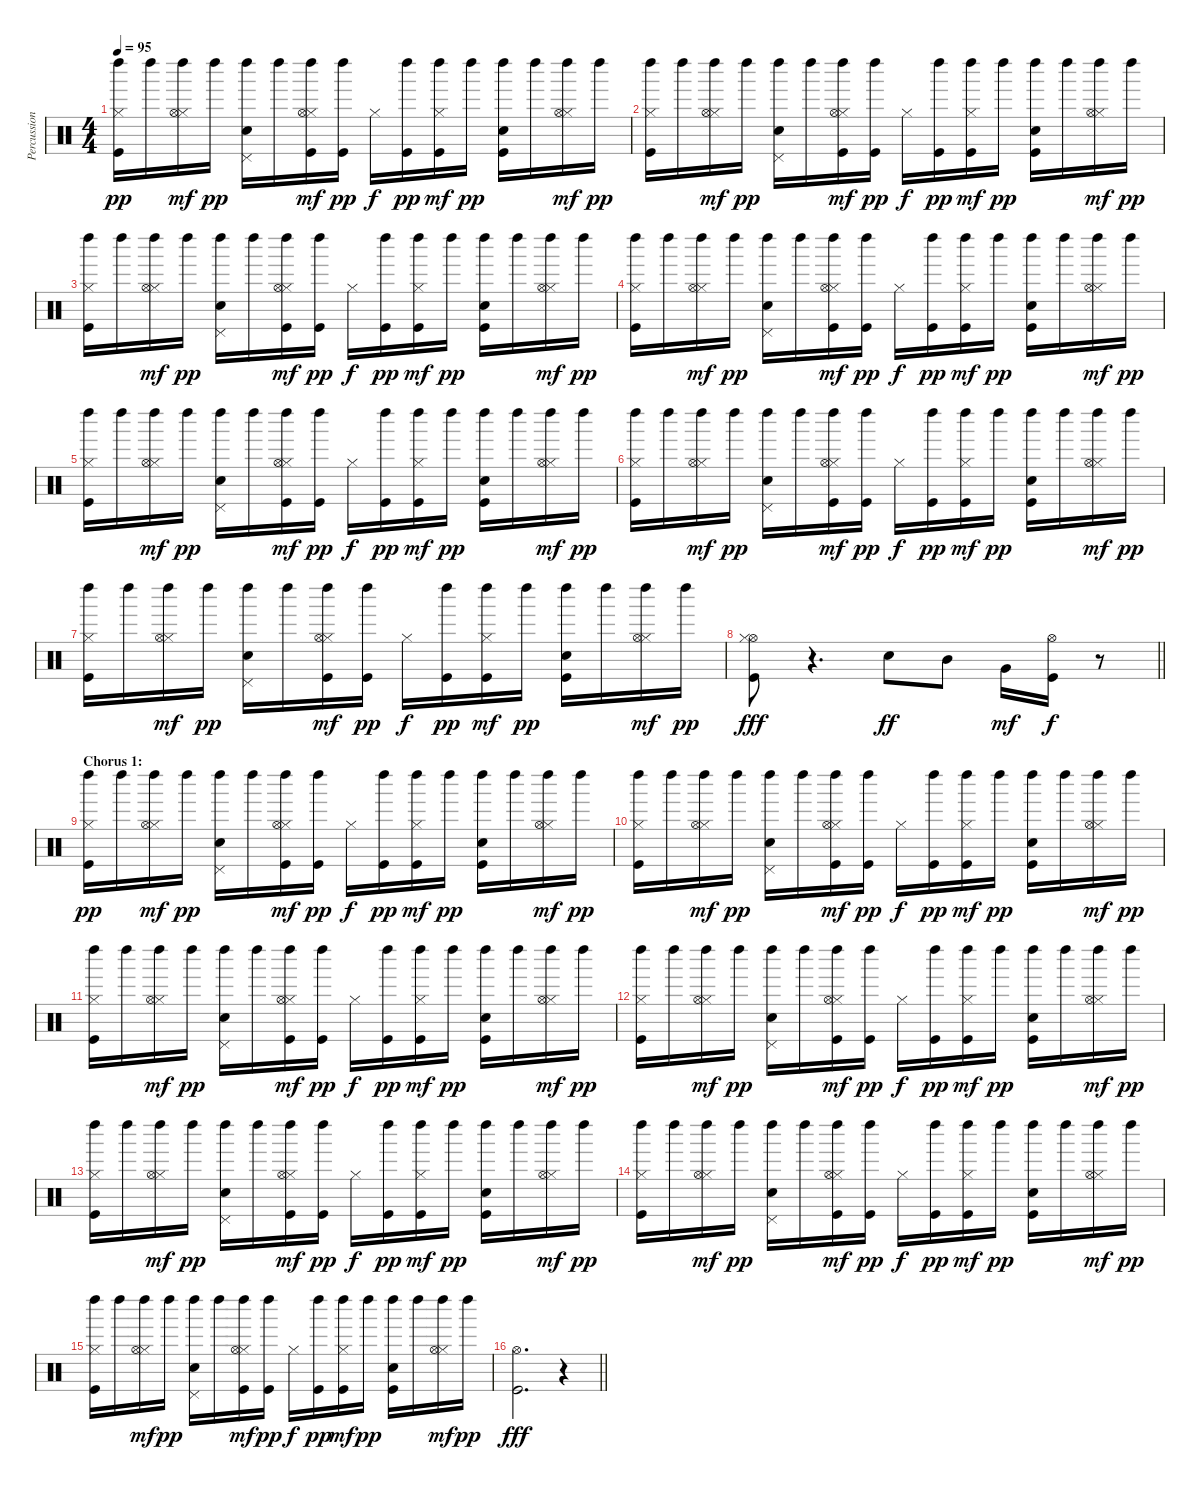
\track ("Percussion" "Percussion") {instrument percussion}
\staff {score}
\articulation defaults
\ts (4 4)
\tempo 95
\clef neutral
\ks c
("Kick (hit)" "Hi-Hat (closed)" "Left Maraca (hit)").16{dy pp} "Left Maraca (hit)".16 ("Hi-Hat (closed)" "Hi-Hat (open)" "Left Maraca (hit)").16{dy mf} "Left Maraca (hit)".16{dy pp} ("Snare (hit) 2" "Pedal Hi-Hat (hit)" "Left Maraca (hit)").16 "Left Maraca (hit)".16 ("Kick (hit)" "Hi-Hat (closed)" "Hi-Hat (open)" "Left Maraca (hit)").16{dy mf} ("Left Maraca (hit)" "Kick (hit)").16{dy pp} "Hi-Hat (closed)".16{dy f} ("Left Maraca (hit)" "Kick (hit)").16{dy pp} ("Hi-Hat (closed)" "Kick (hit)" "Left Maraca (hit)").16{dy mf} "Left Maraca (hit)".16{dy pp} ("Snare (hit) 2" "Kick (hit)" "Left Maraca (hit)").16 "Left Maraca (hit)".16 ("Hi-Hat (closed)" "Hi-Hat (open)" "Left Maraca (hit)").16{dy mf} "Left Maraca (hit)".16{dy pp} |
("Kick (hit)" "Hi-Hat (closed)" "Left Maraca (hit)").16 "Left Maraca (hit)".16 ("Hi-Hat (closed)" "Hi-Hat (open)" "Left Maraca (hit)").16{dy mf} "Left Maraca (hit)".16{dy pp} ("Snare (hit) 2" "Pedal Hi-Hat (hit)" "Left Maraca (hit)").16 "Left Maraca (hit)".16 ("Kick (hit)" "Hi-Hat (closed)" "Hi-Hat (open)" "Left Maraca (hit)").16{dy mf} ("Left Maraca (hit)" "Kick (hit)").16{dy pp} "Hi-Hat (closed)".16{dy f} ("Left Maraca (hit)" "Kick (hit)").16{dy pp} ("Hi-Hat (closed)" "Kick (hit)" "Left Maraca (hit)").16{dy mf} "Left Maraca (hit)".16{dy pp} ("Snare (hit) 2" "Kick (hit)" "Left Maraca (hit)").16 "Left Maraca (hit)".16 ("Hi-Hat (closed)" "Hi-Hat (open)" "Left Maraca (hit)").16{dy mf} "Left Maraca (hit)".16{dy pp} |
("Kick (hit)" "Hi-Hat (closed)" "Left Maraca (hit)").16 "Left Maraca (hit)".16 ("Hi-Hat (closed)" "Hi-Hat (open)" "Left Maraca (hit)").16{dy mf} "Left Maraca (hit)".16{dy pp} ("Snare (hit) 2" "Pedal Hi-Hat (hit)" "Left Maraca (hit)").16 "Left Maraca (hit)".16 ("Kick (hit)" "Hi-Hat (closed)" "Hi-Hat (open)" "Left Maraca (hit)").16{dy mf} ("Left Maraca (hit)" "Kick (hit)").16{dy pp} "Hi-Hat (closed)".16{dy f} ("Left Maraca (hit)" "Kick (hit)").16{dy pp} ("Hi-Hat (closed)" "Kick (hit)" "Left Maraca (hit)").16{dy mf} "Left Maraca (hit)".16{dy pp} ("Snare (hit) 2" "Kick (hit)" "Left Maraca (hit)").16 "Left Maraca (hit)".16 ("Hi-Hat (closed)" "Hi-Hat (open)" "Left Maraca (hit)").16{dy mf} "Left Maraca (hit)".16{dy pp} |
("Kick (hit)" "Hi-Hat (closed)" "Left Maraca (hit)").16 "Left Maraca (hit)".16 ("Hi-Hat (closed)" "Hi-Hat (open)" "Left Maraca (hit)").16{dy mf} "Left Maraca (hit)".16{dy pp} ("Snare (hit) 2" "Pedal Hi-Hat (hit)" "Left Maraca (hit)").16 "Left Maraca (hit)".16 ("Kick (hit)" "Hi-Hat (closed)" "Hi-Hat (open)" "Left Maraca (hit)").16{dy mf} ("Left Maraca (hit)" "Kick (hit)").16{dy pp} "Hi-Hat (closed)".16{dy f} ("Left Maraca (hit)" "Kick (hit)").16{dy pp} ("Hi-Hat (closed)" "Kick (hit)" "Left Maraca (hit)").16{dy mf} "Left Maraca (hit)".16{dy pp} ("Snare (hit) 2" "Kick (hit)" "Left Maraca (hit)").16 "Left Maraca (hit)".16 ("Hi-Hat (closed)" "Hi-Hat (open)" "Left Maraca (hit)").16{dy mf} "Left Maraca (hit)".16{dy pp} |
("Kick (hit)" "Hi-Hat (closed)" "Left Maraca (hit)").16 "Left Maraca (hit)".16 ("Hi-Hat (closed)" "Hi-Hat (open)" "Left Maraca (hit)").16{dy mf} "Left Maraca (hit)".16{dy pp} ("Snare (hit) 2" "Pedal Hi-Hat (hit)" "Left Maraca (hit)").16 "Left Maraca (hit)".16 ("Kick (hit)" "Hi-Hat (closed)" "Hi-Hat (open)" "Left Maraca (hit)").16{dy mf} ("Left Maraca (hit)" "Kick (hit)").16{dy pp} "Hi-Hat (closed)".16{dy f} ("Left Maraca (hit)" "Kick (hit)").16{dy pp} ("Hi-Hat (closed)" "Kick (hit)" "Left Maraca (hit)").16{dy mf} "Left Maraca (hit)".16{dy pp} ("Snare (hit) 2" "Kick (hit)" "Left Maraca (hit)").16 "Left Maraca (hit)".16 ("Hi-Hat (closed)" "Hi-Hat (open)" "Left Maraca (hit)").16{dy mf} "Left Maraca (hit)".16{dy pp} |
("Kick (hit)" "Hi-Hat (closed)" "Left Maraca (hit)").16 "Left Maraca (hit)".16 ("Hi-Hat (closed)" "Hi-Hat (open)" "Left Maraca (hit)").16{dy mf} "Left Maraca (hit)".16{dy pp} ("Snare (hit) 2" "Pedal Hi-Hat (hit)" "Left Maraca (hit)").16 "Left Maraca (hit)".16 ("Kick (hit)" "Hi-Hat (closed)" "Hi-Hat (open)" "Left Maraca (hit)").16{dy mf} ("Left Maraca (hit)" "Kick (hit)").16{dy pp} "Hi-Hat (closed)".16{dy f} ("Left Maraca (hit)" "Kick (hit)").16{dy pp} ("Hi-Hat (closed)" "Kick (hit)" "Left Maraca (hit)").16{dy mf} "Left Maraca (hit)".16{dy pp} ("Snare (hit) 2" "Kick (hit)" "Left Maraca (hit)").16 "Left Maraca (hit)".16 ("Hi-Hat (closed)" "Hi-Hat (open)" "Left Maraca (hit)").16{dy mf} "Left Maraca (hit)".16{dy pp} |
("Kick (hit)" "Hi-Hat (closed)" "Left Maraca (hit)").16 "Left Maraca (hit)".16 ("Hi-Hat (closed)" "Hi-Hat (open)" "Left Maraca (hit)").16{dy mf} "Left Maraca (hit)".16{dy pp} ("Snare (hit) 2" "Pedal Hi-Hat (hit)" "Left Maraca (hit)").16 "Left Maraca (hit)".16 ("Kick (hit)" "Hi-Hat (closed)" "Hi-Hat (open)" "Left Maraca (hit)").16{dy mf} ("Left Maraca (hit)" "Kick (hit)").16{dy pp} "Hi-Hat (closed)".16{dy f} ("Left Maraca (hit)" "Kick (hit)").16{dy pp} ("Hi-Hat (closed)" "Kick (hit)" "Left Maraca (hit)").16{dy mf} "Left Maraca (hit)".16{dy pp} ("Snare (hit) 2" "Kick (hit)" "Left Maraca (hit)").16 "Left Maraca (hit)".16 ("Hi-Hat (closed)" "Hi-Hat (open)" "Left Maraca (hit)").16{dy mf} "Left Maraca (hit)".16{dy pp} |
\barLineRight lightlight
("Hi-Hat (open)" "Kick (hit)" "Hi-Hat (closed)").8{dy fff} r.4{d} "Snare (hit) 2".8{dy ff} "Mid Tom (hit)".8 "Very Low Tom (hit)".16{dy mf} ("Kick (hit)" "Hi-Hat (open)").16{dy f} r.8 |
\section ("" "Chorus 1:")
("Kick (hit)" "Hi-Hat (closed)" "Left Maraca (hit)").16{dy pp} "Left Maraca (hit)".16 ("Hi-Hat (closed)" "Hi-Hat (open)" "Left Maraca (hit)").16{dy mf} "Left Maraca (hit)".16{dy pp} ("Snare (hit) 2" "Pedal Hi-Hat (hit)" "Left Maraca (hit)").16 "Left Maraca (hit)".16 ("Kick (hit)" "Hi-Hat (closed)" "Hi-Hat (open)" "Left Maraca (hit)").16{dy mf} ("Left Maraca (hit)" "Kick (hit)").16{dy pp} "Hi-Hat (closed)".16{dy f} ("Left Maraca (hit)" "Kick (hit)").16{dy pp} ("Hi-Hat (closed)" "Kick (hit)" "Left Maraca (hit)").16{dy mf} "Left Maraca (hit)".16{dy pp} ("Snare (hit) 2" "Kick (hit)" "Left Maraca (hit)").16 "Left Maraca (hit)".16 ("Hi-Hat (closed)" "Hi-Hat (open)" "Left Maraca (hit)").16{dy mf} "Left Maraca (hit)".16{dy pp} |
("Kick (hit)" "Hi-Hat (closed)" "Left Maraca (hit)").16 "Left Maraca (hit)".16 ("Hi-Hat (closed)" "Hi-Hat (open)" "Left Maraca (hit)").16{dy mf} "Left Maraca (hit)".16{dy pp} ("Snare (hit) 2" "Pedal Hi-Hat (hit)" "Left Maraca (hit)").16 "Left Maraca (hit)".16 ("Kick (hit)" "Hi-Hat (closed)" "Hi-Hat (open)" "Left Maraca (hit)").16{dy mf} ("Left Maraca (hit)" "Kick (hit)").16{dy pp} "Hi-Hat (closed)".16{dy f} ("Left Maraca (hit)" "Kick (hit)").16{dy pp} ("Hi-Hat (closed)" "Kick (hit)" "Left Maraca (hit)").16{dy mf} "Left Maraca (hit)".16{dy pp} ("Snare (hit) 2" "Kick (hit)" "Left Maraca (hit)").16 "Left Maraca (hit)".16 ("Hi-Hat (closed)" "Hi-Hat (open)" "Left Maraca (hit)").16{dy mf} "Left Maraca (hit)".16{dy pp} |
("Kick (hit)" "Hi-Hat (closed)" "Left Maraca (hit)").16 "Left Maraca (hit)".16 ("Hi-Hat (closed)" "Hi-Hat (open)" "Left Maraca (hit)").16{dy mf} "Left Maraca (hit)".16{dy pp} ("Snare (hit) 2" "Pedal Hi-Hat (hit)" "Left Maraca (hit)").16 "Left Maraca (hit)".16 ("Kick (hit)" "Hi-Hat (closed)" "Hi-Hat (open)" "Left Maraca (hit)").16{dy mf} ("Left Maraca (hit)" "Kick (hit)").16{dy pp} "Hi-Hat (closed)".16{dy f} ("Left Maraca (hit)" "Kick (hit)").16{dy pp} ("Hi-Hat (closed)" "Kick (hit)" "Left Maraca (hit)").16{dy mf} "Left Maraca (hit)".16{dy pp} ("Snare (hit) 2" "Kick (hit)" "Left Maraca (hit)").16 "Left Maraca (hit)".16 ("Hi-Hat (closed)" "Hi-Hat (open)" "Left Maraca (hit)").16{dy mf} "Left Maraca (hit)".16{dy pp} |
("Kick (hit)" "Hi-Hat (closed)" "Left Maraca (hit)").16 "Left Maraca (hit)".16 ("Hi-Hat (closed)" "Hi-Hat (open)" "Left Maraca (hit)").16{dy mf} "Left Maraca (hit)".16{dy pp} ("Snare (hit) 2" "Pedal Hi-Hat (hit)" "Left Maraca (hit)").16 "Left Maraca (hit)".16 ("Kick (hit)" "Hi-Hat (closed)" "Hi-Hat (open)" "Left Maraca (hit)").16{dy mf} ("Left Maraca (hit)" "Kick (hit)").16{dy pp} "Hi-Hat (closed)".16{dy f} ("Left Maraca (hit)" "Kick (hit)").16{dy pp} ("Hi-Hat (closed)" "Kick (hit)" "Left Maraca (hit)").16{dy mf} "Left Maraca (hit)".16{dy pp} ("Snare (hit) 2" "Kick (hit)" "Left Maraca (hit)").16 "Left Maraca (hit)".16 ("Hi-Hat (closed)" "Hi-Hat (open)" "Left Maraca (hit)").16{dy mf} "Left Maraca (hit)".16{dy pp} |
("Kick (hit)" "Hi-Hat (closed)" "Left Maraca (hit)").16 "Left Maraca (hit)".16 ("Hi-Hat (closed)" "Hi-Hat (open)" "Left Maraca (hit)").16{dy mf} "Left Maraca (hit)".16{dy pp} ("Snare (hit) 2" "Pedal Hi-Hat (hit)" "Left Maraca (hit)").16 "Left Maraca (hit)".16 ("Kick (hit)" "Hi-Hat (closed)" "Hi-Hat (open)" "Left Maraca (hit)").16{dy mf} ("Left Maraca (hit)" "Kick (hit)").16{dy pp} "Hi-Hat (closed)".16{dy f} ("Left Maraca (hit)" "Kick (hit)").16{dy pp} ("Hi-Hat (closed)" "Kick (hit)" "Left Maraca (hit)").16{dy mf} "Left Maraca (hit)".16{dy pp} ("Snare (hit) 2" "Kick (hit)" "Left Maraca (hit)").16 "Left Maraca (hit)".16 ("Hi-Hat (closed)" "Hi-Hat (open)" "Left Maraca (hit)").16{dy mf} "Left Maraca (hit)".16{dy pp} |
("Kick (hit)" "Hi-Hat (closed)" "Left Maraca (hit)").16 "Left Maraca (hit)".16 ("Hi-Hat (closed)" "Hi-Hat (open)" "Left Maraca (hit)").16{dy mf} "Left Maraca (hit)".16{dy pp} ("Snare (hit) 2" "Pedal Hi-Hat (hit)" "Left Maraca (hit)").16 "Left Maraca (hit)".16 ("Kick (hit)" "Hi-Hat (closed)" "Hi-Hat (open)" "Left Maraca (hit)").16{dy mf} ("Left Maraca (hit)" "Kick (hit)").16{dy pp} "Hi-Hat (closed)".16{dy f} ("Left Maraca (hit)" "Kick (hit)").16{dy pp} ("Hi-Hat (closed)" "Kick (hit)" "Left Maraca (hit)").16{dy mf} "Left Maraca (hit)".16{dy pp} ("Snare (hit) 2" "Kick (hit)" "Left Maraca (hit)").16 "Left Maraca (hit)".16 ("Hi-Hat (closed)" "Hi-Hat (open)" "Left Maraca (hit)").16{dy mf} "Left Maraca (hit)".16{dy pp} |
("Kick (hit)" "Hi-Hat (closed)" "Left Maraca (hit)").16 "Left Maraca (hit)".16 ("Hi-Hat (closed)" "Hi-Hat (open)" "Left Maraca (hit)").16{dy mf} "Left Maraca (hit)".16{dy pp} ("Snare (hit) 2" "Pedal Hi-Hat (hit)" "Left Maraca (hit)").16 "Left Maraca (hit)".16 ("Kick (hit)" "Hi-Hat (closed)" "Hi-Hat (open)" "Left Maraca (hit)").16{dy mf} ("Left Maraca (hit)" "Kick (hit)").16{dy pp} "Hi-Hat (closed)".16{dy f} ("Left Maraca (hit)" "Kick (hit)").16{dy pp} ("Hi-Hat (closed)" "Kick (hit)" "Left Maraca (hit)").16{dy mf} "Left Maraca (hit)".16{dy pp} ("Snare (hit) 2" "Kick (hit)" "Left Maraca (hit)").16 "Left Maraca (hit)".16 ("Hi-Hat (closed)" "Hi-Hat (open)" "Left Maraca (hit)").16{dy mf} "Left Maraca (hit)".16{dy pp} |
\barLineRight lightlight
("Hi-Hat (open)" "Kick (hit)").2{d dy fff} r.4
